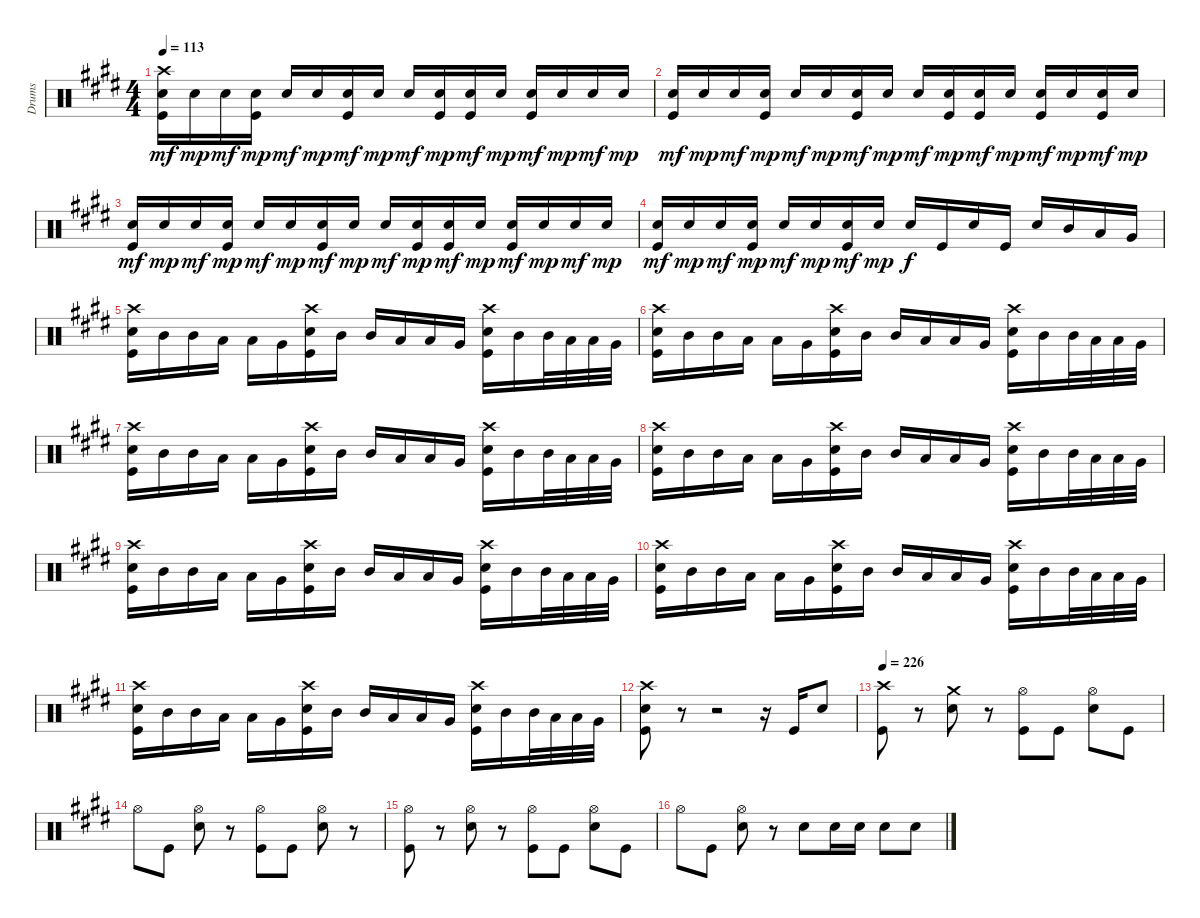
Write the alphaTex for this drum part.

\track ("Drums" "Drums") {instrument percussion}
\staff {score}
\articulation defaults
\ts (4 4)
\tempo 113
\clef neutral
\ks e
("Crash high (hit)" "Snare (hit) 2" "Kick (hit)").16{dy mf} "Snare (hit) 2".16{dy mp} "Snare (hit) 2".16{dy mf} ("Snare (hit) 2" "Kick (hit)").16{dy mp} "Snare (hit) 2".16{dy mf} "Snare (hit) 2".16{dy mp} ("Snare (hit) 2" "Kick (hit)").16{dy mf} "Snare (hit) 2".16{dy mp} "Snare (hit) 2".16{dy mf} ("Snare (hit) 2" "Kick (hit)").16{dy mp} ("Snare (hit) 2" "Kick (hit)").16{dy mf} "Snare (hit) 2".16{dy mp} ("Snare (hit) 2" "Kick (hit)").16{dy mf} "Snare (hit) 2".16{dy mp} "Snare (hit) 2".16{dy mf} "Snare (hit) 2".16{dy mp} |
("Snare (hit) 2" "Kick (hit)").16{dy mf} "Snare (hit) 2".16{dy mp} "Snare (hit) 2".16{dy mf} ("Snare (hit) 2" "Kick (hit)").16{dy mp} "Snare (hit) 2".16{dy mf} "Snare (hit) 2".16{dy mp} ("Snare (hit) 2" "Kick (hit)").16{dy mf} "Snare (hit) 2".16{dy mp} "Snare (hit) 2".16{dy mf} ("Snare (hit) 2" "Kick (hit)").16{dy mp} ("Snare (hit) 2" "Kick (hit)").16{dy mf} "Snare (hit) 2".16{dy mp} ("Snare (hit) 2" "Kick (hit)").16{dy mf} "Snare (hit) 2".16{dy mp} ("Snare (hit) 2" "Kick (hit)").16{dy mf} "Snare (hit) 2".16{dy mp} |
("Snare (hit) 2" "Kick (hit)").16{dy mf} "Snare (hit) 2".16{dy mp} "Snare (hit) 2".16{dy mf} ("Snare (hit) 2" "Kick (hit)").16{dy mp} "Snare (hit) 2".16{dy mf} "Snare (hit) 2".16{dy mp} ("Snare (hit) 2" "Kick (hit)").16{dy mf} "Snare (hit) 2".16{dy mp} "Snare (hit) 2".16{dy mf} ("Snare (hit) 2" "Kick (hit)").16{dy mp} ("Snare (hit) 2" "Kick (hit)").16{dy mf} "Snare (hit) 2".16{dy mp} ("Snare (hit) 2" "Kick (hit)").16{dy mf} "Snare (hit) 2".16{dy mp} "Snare (hit) 2".16{dy mf} "Snare (hit) 2".16{dy mp} |
("Snare (hit) 2" "Kick (hit)").16{dy mf} "Snare (hit) 2".16{dy mp} "Snare (hit) 2".16{dy mf} ("Snare (hit) 2" "Kick (hit)").16{dy mp} "Snare (hit) 2".16{dy mf} "Snare (hit) 2".16{dy mp} ("Snare (hit) 2" "Kick (hit)").16{dy mf} "Snare (hit) 2".16{dy mp} "Snare (hit) 2".16{dy f} "Kick (hit)".16 "Snare (hit) 2".16 "Kick (hit)".16 "Snare (hit) 2".16 "Mid Tom (hit)".16 "Low Tom (hit)".16 "Very Low Tom (hit)".16 |
("Crash high (hit)" "Snare (hit) 2" "Kick (hit)").16 "Mid Tom (hit)".16 "Mid Tom (hit)".16 "Low Tom (hit)".16 "Low Tom (hit)".16 "Very Low Tom (hit)".16 ("Crash high (hit)" "Snare (hit) 2" "Kick (hit)").16 "Mid Tom (hit)".16 "Mid Tom (hit)".16 "Low Tom (hit)".16 "Low Tom (hit)".16 "Very Low Tom (hit)".16 ("Crash high (hit)" "Snare (hit) 2" "Kick (hit)").16 "Mid Tom (hit)".16 "Mid Tom (hit)".32 "Low Tom (hit)".32 "Low Tom (hit)".32 "Very Low Tom (hit)".32 |
("Crash high (hit)" "Snare (hit) 2" "Kick (hit)").16 "Mid Tom (hit)".16 "Mid Tom (hit)".16 "Low Tom (hit)".16 "Low Tom (hit)".16 "Very Low Tom (hit)".16 ("Crash high (hit)" "Snare (hit) 2" "Kick (hit)").16 "Mid Tom (hit)".16 "Mid Tom (hit)".16 "Low Tom (hit)".16 "Low Tom (hit)".16 "Very Low Tom (hit)".16 ("Crash high (hit)" "Snare (hit) 2" "Kick (hit)").16 "Mid Tom (hit)".16 "Mid Tom (hit)".32 "Low Tom (hit)".32 "Low Tom (hit)".32 "Very Low Tom (hit)".32 |
("Crash high (hit)" "Snare (hit) 2" "Kick (hit)").16 "Mid Tom (hit)".16 "Mid Tom (hit)".16 "Low Tom (hit)".16 "Low Tom (hit)".16 "Very Low Tom (hit)".16 ("Crash high (hit)" "Snare (hit) 2" "Kick (hit)").16 "Mid Tom (hit)".16 "Mid Tom (hit)".16 "Low Tom (hit)".16 "Low Tom (hit)".16 "Very Low Tom (hit)".16 ("Crash high (hit)" "Snare (hit) 2" "Kick (hit)").16 "Mid Tom (hit)".16 "Mid Tom (hit)".32 "Low Tom (hit)".32 "Low Tom (hit)".32 "Very Low Tom (hit)".32 |
("Crash high (hit)" "Snare (hit) 2" "Kick (hit)").16 "Mid Tom (hit)".16 "Mid Tom (hit)".16 "Low Tom (hit)".16 "Low Tom (hit)".16 "Very Low Tom (hit)".16 ("Crash high (hit)" "Snare (hit) 2" "Kick (hit)").16 "Mid Tom (hit)".16 "Mid Tom (hit)".16 "Low Tom (hit)".16 "Low Tom (hit)".16 "Very Low Tom (hit)".16 ("Crash high (hit)" "Snare (hit) 2" "Kick (hit)").16 "Mid Tom (hit)".16 "Mid Tom (hit)".32 "Low Tom (hit)".32 "Low Tom (hit)".32 "Very Low Tom (hit)".32 |
("Crash high (hit)" "Snare (hit) 2" "Kick (hit)").16 "Mid Tom (hit)".16 "Mid Tom (hit)".16 "Low Tom (hit)".16 "Low Tom (hit)".16 "Very Low Tom (hit)".16 ("Crash high (hit)" "Snare (hit) 2" "Kick (hit)").16 "Mid Tom (hit)".16 "Mid Tom (hit)".16 "Low Tom (hit)".16 "Low Tom (hit)".16 "Very Low Tom (hit)".16 ("Crash high (hit)" "Snare (hit) 2" "Kick (hit)").16 "Mid Tom (hit)".16 "Mid Tom (hit)".32 "Low Tom (hit)".32 "Low Tom (hit)".32 "Very Low Tom (hit)".32 |
("Crash high (hit)" "Snare (hit) 2" "Kick (hit)").16 "Mid Tom (hit)".16 "Mid Tom (hit)".16 "Low Tom (hit)".16 "Low Tom (hit)".16 "Very Low Tom (hit)".16 ("Crash high (hit)" "Snare (hit) 2" "Kick (hit)").16 "Mid Tom (hit)".16 "Mid Tom (hit)".16 "Low Tom (hit)".16 "Low Tom (hit)".16 "Very Low Tom (hit)".16 ("Crash high (hit)" "Snare (hit) 2" "Kick (hit)").16 "Mid Tom (hit)".16 "Mid Tom (hit)".32 "Low Tom (hit)".32 "Low Tom (hit)".32 "Very Low Tom (hit)".32 |
("Crash high (hit)" "Snare (hit) 2" "Kick (hit)").16 "Mid Tom (hit)".16 "Mid Tom (hit)".16 "Low Tom (hit)".16 "Low Tom (hit)".16 "Very Low Tom (hit)".16 ("Crash high (hit)" "Snare (hit) 2" "Kick (hit)").16 "Mid Tom (hit)".16 "Mid Tom (hit)".16 "Low Tom (hit)".16 "Low Tom (hit)".16 "Very Low Tom (hit)".16 ("Crash high (hit)" "Snare (hit) 2" "Kick (hit)").16 "Mid Tom (hit)".16 "Mid Tom (hit)".32 "Low Tom (hit)".32 "Low Tom (hit)".32 "Very Low Tom (hit)".32 |
("Crash high (hit)" "Snare (hit) 2" "Kick (hit)").8 r.8 r.2 r.16 "Kick (hit)".16 "Snare (hit) 2".8 |
\tempo 226
("Crash high (hit)" "Kick (hit)").8 r.8 ("Crash medium (hit)" "Snare (hit) 2").8 r.8 ("Hi-Hat (open)" "Kick (hit)").8 "Kick (hit)".8 ("Hi-Hat (open)" "Snare (hit) 2").8 "Kick (hit)".8 |
"Hi-Hat (open)".8 "Kick (hit)".8 ("Hi-Hat (open)" "Snare (hit) 2").8 r.8 ("Hi-Hat (open)" "Kick (hit)").8 "Kick (hit)".8 ("Hi-Hat (open)" "Snare (hit) 2").8 r.8 |
("Hi-Hat (open)" "Kick (hit)").8 r.8 ("Hi-Hat (open)" "Snare (hit) 2").8 r.8 ("Hi-Hat (open)" "Kick (hit)").8 "Kick (hit)".8 ("Hi-Hat (open)" "Snare (hit) 2").8 "Kick (hit)".8 |
"Hi-Hat (open)".8 "Kick (hit)".8 ("Hi-Hat (open)" "Snare (hit) 2").8 r.8 "Snare (hit) 2".8 "Snare (hit) 2".16 "Snare (hit) 2".16 "Snare (hit) 2".8 "Snare (hit) 2".8
